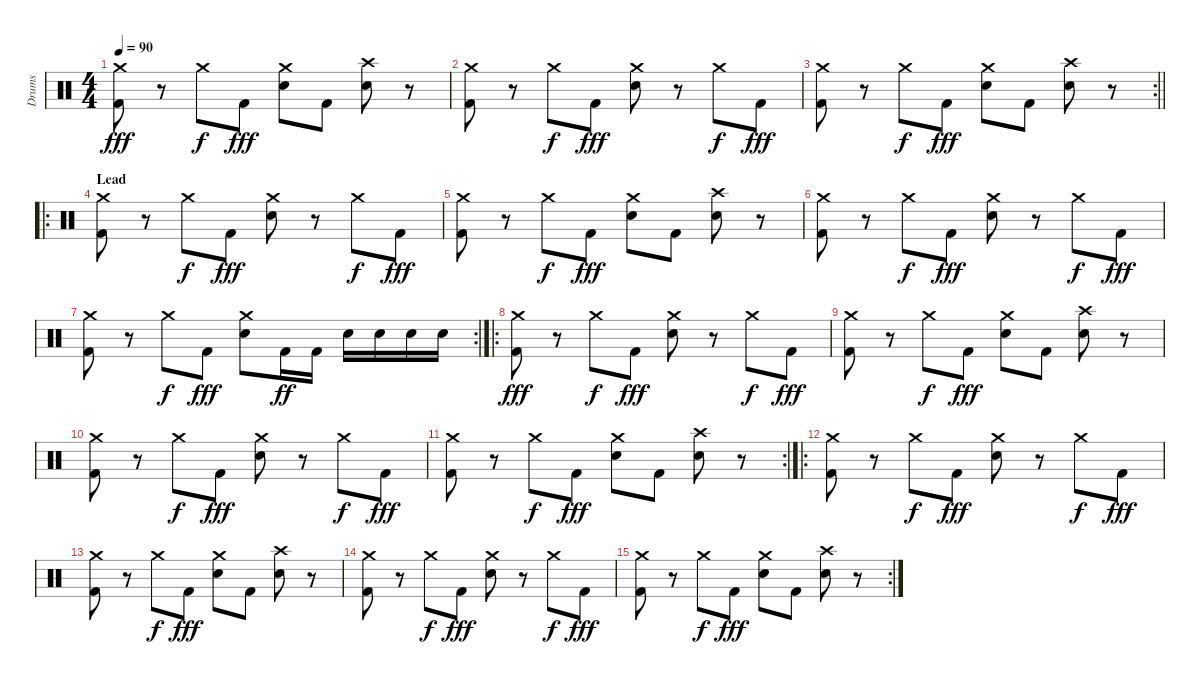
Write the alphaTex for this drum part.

\track ("Drums" "Drums") {instrument percussion}
\staff {score}
\articulation defaults
\ts (4 4)
\tempo 90
\clef neutral
\ks c
("Crash medium (hit)" "Kick (hit) 2").8{dy fff} r.8 "Crash medium (hit)".8{dy f} "Kick (hit) 2".8{dy fff} ("Crash medium (hit)" "Electric Snare (hit)").8 "Kick (hit) 2".8 ("Crash high (hit)" "Electric Snare (hit)").8 r.8 |
("Crash medium (hit)" "Kick (hit) 2").8 r.8 "Crash medium (hit)".8{dy f} "Kick (hit) 2".8{dy fff} ("Crash medium (hit)" "Electric Snare (hit)").8 r.8 "Crash medium (hit)".8{dy f} "Kick (hit) 2".8{dy fff} |
\rc 2
\barLineRight lightlight
("Crash medium (hit)" "Kick (hit) 2").8 r.8 "Crash medium (hit)".8{dy f} "Kick (hit) 2".8{dy fff} ("Crash medium (hit)" "Electric Snare (hit)").8 "Kick (hit) 2".8 ("Crash high (hit)" "Electric Snare (hit)").8 r.8 |
\ro
\section ("" "Lead")
("Crash medium (hit)" "Kick (hit) 2").8 r.8 "Crash medium (hit)".8{dy f} "Kick (hit) 2".8{dy fff} ("Crash medium (hit)" "Electric Snare (hit)").8 r.8 "Crash medium (hit)".8{dy f} "Kick (hit) 2".8{dy fff} |
("Crash medium (hit)" "Kick (hit) 2").8 r.8 "Crash medium (hit)".8{dy f} "Kick (hit) 2".8{dy fff} ("Crash medium (hit)" "Electric Snare (hit)").8 "Kick (hit) 2".8 ("Crash high (hit)" "Electric Snare (hit)").8 r.8 |
("Crash medium (hit)" "Kick (hit) 2").8 r.8 "Crash medium (hit)".8{dy f} "Kick (hit) 2".8{dy fff} ("Crash medium (hit)" "Electric Snare (hit)").8 r.8 "Crash medium (hit)".8{dy f} "Kick (hit) 2".8{dy fff} |
\rc 2
("Crash medium (hit)" "Kick (hit) 2").8 r.8 "Crash medium (hit)".8{dy f} "Kick (hit) 2".8{dy fff} ("Crash medium (hit)" "Electric Snare (hit)").8 "Kick (hit) 2".16{dy ff} "Kick (hit) 2".16 "Electric Snare (hit)".16 "Electric Snare (hit)".16 "Electric Snare (hit)".16 "Electric Snare (hit)".16 |
\ro
("Crash medium (hit)" "Kick (hit) 2").8{dy fff} r.8 "Crash medium (hit)".8{dy f} "Kick (hit) 2".8{dy fff} ("Crash medium (hit)" "Electric Snare (hit)").8 r.8 "Crash medium (hit)".8{dy f} "Kick (hit) 2".8{dy fff} |
("Crash medium (hit)" "Kick (hit) 2").8 r.8 "Crash medium (hit)".8{dy f} "Kick (hit) 2".8{dy fff} ("Crash medium (hit)" "Electric Snare (hit)").8 "Kick (hit) 2".8 ("Crash high (hit)" "Electric Snare (hit)").8 r.8 |
("Crash medium (hit)" "Kick (hit) 2").8 r.8 "Crash medium (hit)".8{dy f} "Kick (hit) 2".8{dy fff} ("Crash medium (hit)" "Electric Snare (hit)").8 r.8 "Crash medium (hit)".8{dy f} "Kick (hit) 2".8{dy fff} |
\rc 2
("Crash medium (hit)" "Kick (hit) 2").8 r.8 "Crash medium (hit)".8{dy f} "Kick (hit) 2".8{dy fff} ("Crash medium (hit)" "Electric Snare (hit)").8 "Kick (hit) 2".8 ("Crash high (hit)" "Electric Snare (hit)").8 r.8 |
\ro
("Crash medium (hit)" "Kick (hit) 2").8 r.8 "Crash medium (hit)".8{dy f} "Kick (hit) 2".8{dy fff} ("Crash medium (hit)" "Electric Snare (hit)").8 r.8 "Crash medium (hit)".8{dy f} "Kick (hit) 2".8{dy fff} |
("Crash medium (hit)" "Kick (hit) 2").8 r.8 "Crash medium (hit)".8{dy f} "Kick (hit) 2".8{dy fff} ("Crash medium (hit)" "Electric Snare (hit)").8 "Kick (hit) 2".8 ("Crash high (hit)" "Electric Snare (hit)").8 r.8 |
("Crash medium (hit)" "Kick (hit) 2").8 r.8 "Crash medium (hit)".8{dy f} "Kick (hit) 2".8{dy fff} ("Crash medium (hit)" "Electric Snare (hit)").8 r.8 "Crash medium (hit)".8{dy f} "Kick (hit) 2".8{dy fff} |
\rc 2
("Crash medium (hit)" "Kick (hit) 2").8 r.8 "Crash medium (hit)".8{dy f} "Kick (hit) 2".8{dy fff} ("Crash medium (hit)" "Electric Snare (hit)").8 "Kick (hit) 2".8 ("Crash high (hit)" "Electric Snare (hit)").8 r.8
